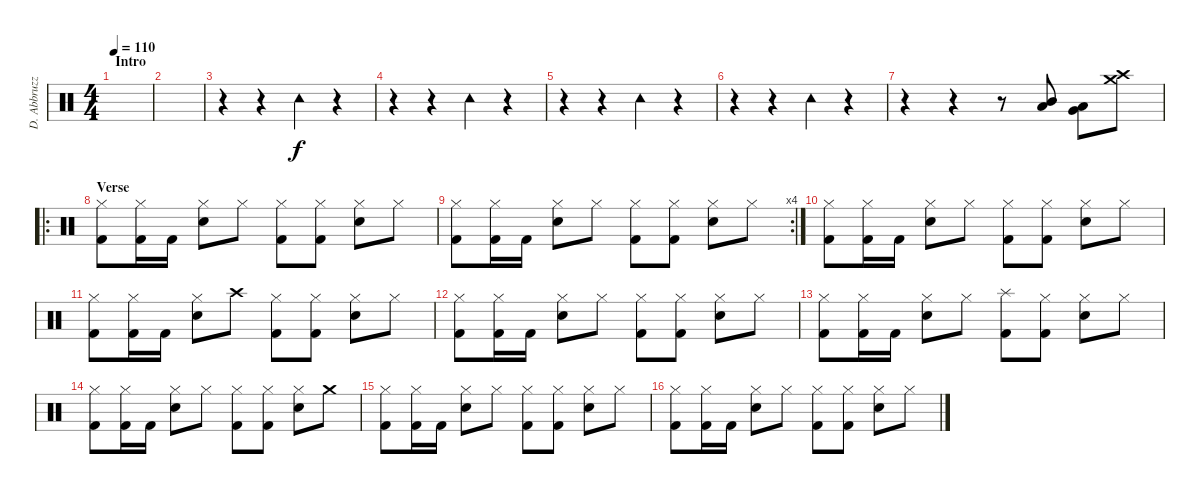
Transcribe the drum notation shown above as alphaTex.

\track ("D. Abbruzzese" "D. Abbruzz") {instrument percussion}
\staff {score}
\articulation defaults
\ts (4 4)
\section ("" "Intro")
\tempo 110
\clef neutral
\ks c
|
|
r.4 r.4 "Tambourine (hit)".4 r.4 |
r.4 r.4 "Tambourine (hit)".4 r.4 |
r.4 r.4 "Tambourine (hit)".4 r.4 |
r.4 r.4 "Tambourine (hit)".4 r.4 |
r.4 r.4 r.8 ("Low Tom (hit)" "Mid Tom (hit)").8 ("Low Tom (hit)" "Very Low Tom (hit)").8 ("Crash high (hit)" "Crash medium (hit)").8 |
\ro
\section ("" "Verse")
("Hi-Hat (closed)" "Kick (hit) 2").8 ("Hi-Hat (closed)" "Kick (hit) 2").16 "Kick (hit) 2".16 ("Hi-Hat (closed)" "Snare (hit) 2").8 "Hi-Hat (closed)".8 ("Hi-Hat (closed)" "Kick (hit) 2").8 ("Hi-Hat (closed)" "Kick (hit) 2").8 ("Hi-Hat (closed)" "Snare (hit) 2").8 "Hi-Hat (closed)".8 |
\rc 4
("Hi-Hat (closed)" "Kick (hit) 2").8 ("Hi-Hat (closed)" "Kick (hit) 2").16 "Kick (hit) 2".16 ("Hi-Hat (closed)" "Snare (hit) 2").8 "Hi-Hat (closed)".8 ("Hi-Hat (closed)" "Kick (hit) 2").8 ("Hi-Hat (closed)" "Kick (hit) 2").8 ("Hi-Hat (closed)" "Snare (hit) 2").8 "Hi-Hat (closed)".8 |
("Hi-Hat (closed)" "Kick (hit) 2").8 ("Hi-Hat (closed)" "Kick (hit) 2").16 "Kick (hit) 2".16 ("Hi-Hat (closed)" "Snare (hit) 2").8 "Hi-Hat (closed)".8 ("Hi-Hat (closed)" "Kick (hit) 2").8 ("Hi-Hat (closed)" "Kick (hit) 2").8 ("Hi-Hat (closed)" "Snare (hit) 2").8 "Hi-Hat (closed)".8 |
("Hi-Hat (closed)" "Kick (hit) 2").8 ("Hi-Hat (closed)" "Kick (hit) 2").16 "Kick (hit) 2".16 ("Hi-Hat (closed)" "Snare (hit) 2").8 "Crash high (hit)".8 ("Hi-Hat (closed)" "Kick (hit) 2").8 ("Hi-Hat (closed)" "Kick (hit) 2").8 ("Hi-Hat (closed)" "Snare (hit) 2").8 "Hi-Hat (closed)".8 |
("Hi-Hat (closed)" "Kick (hit) 2").8 ("Hi-Hat (closed)" "Kick (hit) 2").16 "Kick (hit) 2".16 ("Hi-Hat (closed)" "Snare (hit) 2").8 "Hi-Hat (closed)".8 ("Hi-Hat (closed)" "Kick (hit) 2").8 ("Hi-Hat (closed)" "Kick (hit) 2").8 ("Hi-Hat (closed)" "Snare (hit) 2").8 "Hi-Hat (closed)".8 |
("Hi-Hat (closed)" "Kick (hit) 2").8 ("Hi-Hat (closed)" "Kick (hit) 2").16 "Kick (hit) 2".16 ("Hi-Hat (closed)" "Snare (hit) 2").8 "Hi-Hat (closed)".8 ("Splash (hit)" "Kick (hit) 2").8 ("Hi-Hat (closed)" "Kick (hit) 2").8 ("Hi-Hat (closed)" "Snare (hit) 2").8 "Hi-Hat (closed)".8 |
("Hi-Hat (closed)" "Kick (hit) 2").8 ("Hi-Hat (closed)" "Kick (hit) 2").16 "Kick (hit) 2".16 ("Hi-Hat (closed)" "Snare (hit) 2").8 "Hi-Hat (closed)".8 ("Hi-Hat (closed)" "Kick (hit) 2").8 ("Hi-Hat (closed)" "Kick (hit) 2").8 ("Hi-Hat (closed)" "Snare (hit) 2").8 "Crash medium (hit)".8 |
("Hi-Hat (closed)" "Kick (hit) 2").8 ("Hi-Hat (closed)" "Kick (hit) 2").16 "Kick (hit) 2".16 ("Hi-Hat (closed)" "Snare (hit) 2").8 "Hi-Hat (closed)".8 ("Hi-Hat (closed)" "Kick (hit) 2").8 ("Hi-Hat (closed)" "Kick (hit) 2").8 ("Hi-Hat (closed)" "Snare (hit) 2").8 "Hi-Hat (closed)".8 |
("Hi-Hat (closed)" "Kick (hit) 2").8 ("Hi-Hat (closed)" "Kick (hit) 2").16 "Kick (hit) 2".16 ("Hi-Hat (closed)" "Snare (hit) 2").8 "Hi-Hat (closed)".8 ("Hi-Hat (closed)" "Kick (hit) 2").8 ("Hi-Hat (closed)" "Kick (hit) 2").8 ("Hi-Hat (closed)" "Snare (hit) 2").8 "Hi-Hat (closed)".8
